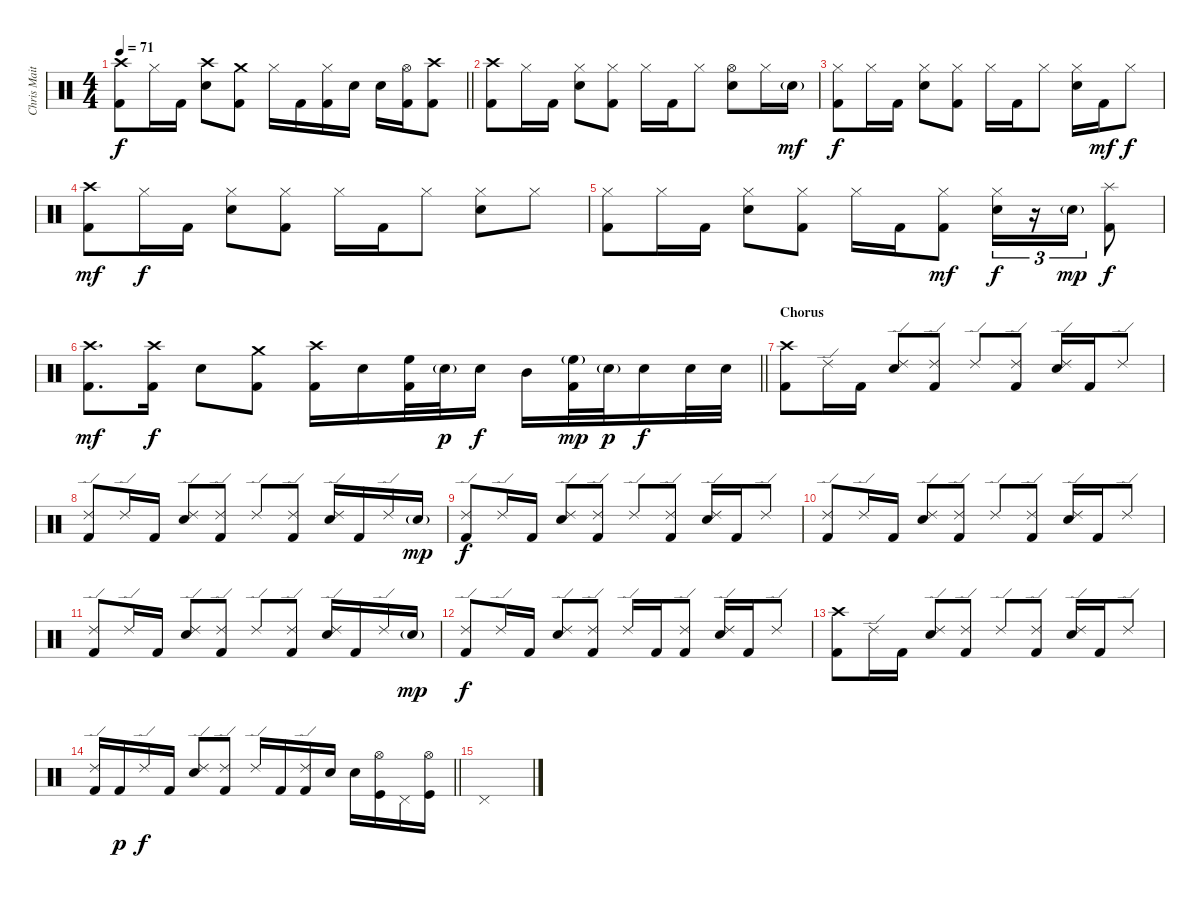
\track ("Chris Maitland" "Chris Mait") {instrument percussion}
\staff {score}
\articulation defaults
\ts (4 4)
\tempo 71
\clef neutral
\barLineRight lightlight
\ks c
("Crash high (hit)" "Kick (hit) 2").8{dy f} "Hi-Hat (closed)".16 "Kick (hit) 2".16 ("Crash high (hit)" "Snare (hit) 2").8 ("Crash medium (hit)" "Kick (hit) 2").8 "Hi-Hat (closed)".16 "Kick (hit) 2".16 ("Hi-Hat (closed)" "Kick (hit) 2").16 "Snare (hit) 2".16 "Snare (hit) 2".16 ("Hi-Hat (open)" "Kick (hit) 2").16 ("Crash high (hit)" "Kick (hit) 2").8 |
("Crash high (hit)" "Kick (hit) 2").8 "Hi-Hat (closed)".16 "Kick (hit) 2".16 ("Hi-Hat (closed)" "Snare (hit) 2").8 ("Hi-Hat (closed)" "Kick (hit) 2").8 "Hi-Hat (closed)".16 "Kick (hit) 2".16 "Hi-Hat (closed)".8 ("Hi-Hat (open)" "Snare (hit) 2").8 "Hi-Hat (closed)".16 "Snare (hit) 2"{g}.16{dy mf} |
("Hi-Hat (closed)" "Kick (hit) 2").8{dy f} "Hi-Hat (closed)".16 "Kick (hit) 2".16 ("Hi-Hat (closed)" "Snare (hit) 2").8 ("Hi-Hat (closed)" "Kick (hit) 2").8 "Hi-Hat (closed)".16 "Kick (hit) 2".16 "Hi-Hat (closed)".8 ("Hi-Hat (closed)" "Snare (hit) 2").16 "Kick (hit) 2".16{dy mf} "Hi-Hat (closed)".8{dy f} |
("Crash high (hit)" "Kick (hit) 2").8{dy mf} "Hi-Hat (closed)".16{dy f} "Kick (hit) 2".16 ("Hi-Hat (closed)" "Snare (hit) 2").8 ("Hi-Hat (closed)" "Kick (hit) 2").8 "Hi-Hat (closed)".16 "Kick (hit) 2".16 "Hi-Hat (closed)".8 ("Hi-Hat (closed)" "Snare (hit) 2").8 "Hi-Hat (closed)".8 |
("Hi-Hat (closed)" "Kick (hit) 2").8 "Hi-Hat (closed)".16 "Kick (hit) 2".16 ("Hi-Hat (closed)" "Snare (hit) 2").8 ("Hi-Hat (closed)" "Kick (hit) 2").8 "Hi-Hat (closed)".16 "Kick (hit) 2".16 ("Hi-Hat (closed)" "Kick (hit) 2").8{dy mf} ("Hi-Hat (closed)" "Snare (hit) 2").16{tu (3 2) dy f} r.16{tu (3 2)} "Snare (hit) 2"{g}.16{tu (3 2) dy mp} ("Splash (hit)" "Kick (hit) 2").8{dy f} |
\barLineRight lightlight
("Crash high (hit)" "Kick (hit) 2").8{d dy mf} ("Crash high (hit)" "Kick (hit) 2").16{dy f} "Snare (hit) 2".8 ("Crash medium (hit)" "Kick (hit) 2").8 ("Crash high (hit)" "Kick (hit) 2").16 "Snare (hit) 2".16 ("High Floor Tom (hit)" "Kick (hit) 2").32 "Snare (hit) 2"{g}.32{dy p} "Snare (hit) 2".16{dy f} "Mid Tom (hit)".16 ("High Floor Tom (hit)"{g} "Kick (hit) 2").32{dy mp} "Snare (hit) 2"{g}.32{dy p} "Snare (hit) 2".16{dy f} "Snare (hit) 2".32 "Snare (hit) 2".32 |
\section ("" "Chorus")
("Crash high (hit)" "Kick (hit) 2").8 "Ride (edge) 2".16 "Kick (hit) 2".16 ("Ride (edge) 2" "Snare (hit) 2").8 ("Ride (edge) 2" "Kick (hit) 2").8 "Ride (edge) 2".8 ("Ride (edge) 2" "Kick (hit) 2").8 ("Ride (edge) 2" "Snare (hit) 2").16 "Kick (hit) 2".16 "Ride (edge) 2".8 |
("Ride (edge) 2" "Kick (hit) 2").8 "Ride (edge) 2".16 "Kick (hit) 2".16 ("Ride (edge) 2" "Snare (hit) 2").8 ("Ride (edge) 2" "Kick (hit) 2").8 "Ride (edge) 2".8 ("Ride (edge) 2" "Kick (hit) 2").8 ("Ride (edge) 2" "Snare (hit) 2").16 "Kick (hit) 2".16 "Ride (edge) 2".16 "Snare (hit) 2"{g}.16{dy mp} |
("Ride (edge) 2" "Kick (hit) 2").8{dy f} "Ride (edge) 2".16 "Kick (hit) 2".16 ("Ride (edge) 2" "Snare (hit) 2").8 ("Ride (edge) 2" "Kick (hit) 2").8 "Ride (edge) 2".8 ("Ride (edge) 2" "Kick (hit) 2").8 ("Ride (edge) 2" "Snare (hit) 2").16 "Kick (hit) 2".16 "Ride (edge) 2".8 |
("Ride (edge) 2" "Kick (hit) 2").8 "Ride (edge) 2".16 "Kick (hit) 2".16 ("Ride (edge) 2" "Snare (hit) 2").8 ("Ride (edge) 2" "Kick (hit) 2").8 "Ride (edge) 2".8 ("Ride (edge) 2" "Kick (hit) 2").8 ("Ride (edge) 2" "Snare (hit) 2").16 "Kick (hit) 2".16 "Ride (edge) 2".8 |
("Ride (edge) 2" "Kick (hit) 2").8 "Ride (edge) 2".16 "Kick (hit) 2".16 ("Ride (edge) 2" "Snare (hit) 2").8 ("Ride (edge) 2" "Kick (hit) 2").8 "Ride (edge) 2".8 ("Ride (edge) 2" "Kick (hit) 2").8 ("Ride (edge) 2" "Snare (hit) 2").16 "Kick (hit) 2".16 "Ride (edge) 2".16 "Snare (hit) 2"{g}.16{dy mp} |
("Ride (edge) 2" "Kick (hit) 2").8{dy f} "Ride (edge) 2".16 "Kick (hit) 2".16 ("Ride (edge) 2" "Snare (hit) 2").8 ("Ride (edge) 2" "Kick (hit) 2").8 "Ride (edge) 2".16 "Kick (hit) 2".16 ("Ride (edge) 2" "Kick (hit) 2").8 ("Ride (edge) 2" "Snare (hit) 2").16 "Kick (hit) 2".16 "Ride (edge) 2".8 |
("Crash high (hit)" "Kick (hit) 2").8 "Ride (edge) 2".16 "Kick (hit) 2".16 ("Ride (edge) 2" "Snare (hit) 2").8 ("Ride (edge) 2" "Kick (hit) 2").8 "Ride (edge) 2".8 ("Ride (edge) 2" "Kick (hit) 2").8 ("Ride (edge) 2" "Snare (hit) 2").16 "Kick (hit) 2".16 "Ride (edge) 2".8 |
\barLineRight lightlight
("Ride (edge) 2" "Kick (hit) 2").16 "Kick (hit) 2".16{dy p} "Ride (edge) 2".16{dy f} "Kick (hit) 2".16 ("Ride (edge) 2" "Snare (hit) 2").8 ("Ride (edge) 2" "Kick (hit) 2").8 "Ride (edge) 2".16 "Kick (hit) 2".16 ("Ride (edge) 2" "Kick (hit) 2").16 "Snare (hit) 2".16 "Snare (hit) 2".16 ("Hi-Hat (open)" "Kick (hit)").16 "Pedal Hi-Hat (hit)".16 ("Hi-Hat (open)" "Kick (hit)").16 |
"Pedal Hi-Hat (hit)".1
